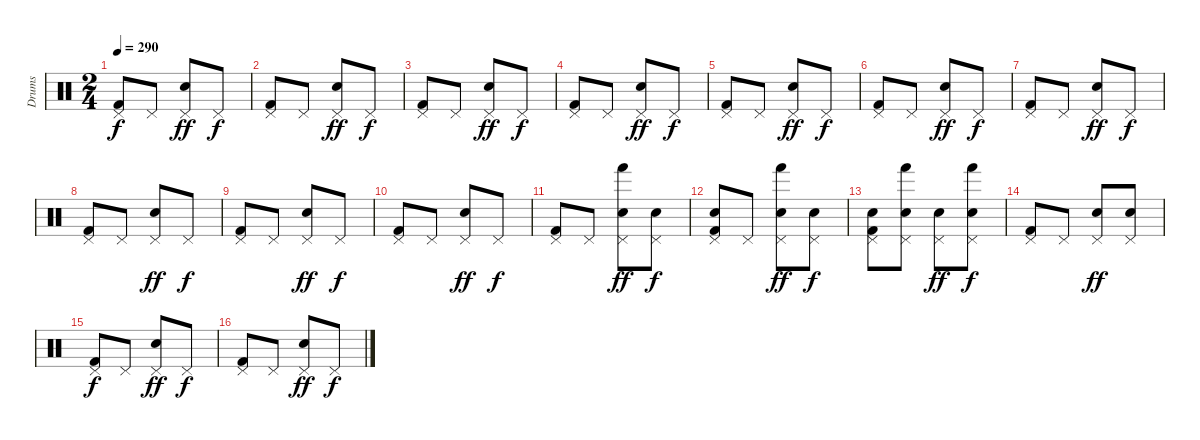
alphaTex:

\track ("Drums" "Drums") {instrument percussion}
\staff {score}
\articulation defaults
\ts (2 4)
\tempo 290
\clef neutral
\ks c
("Pedal Hi-Hat (hit)" "Kick (hit) 2").8{dy f} "Pedal Hi-Hat (hit)".8 ("Pedal Hi-Hat (hit)" "Electric Snare (hit)").8{dy ff} "Pedal Hi-Hat (hit)".8{dy f} |
("Pedal Hi-Hat (hit)" "Kick (hit) 2").8 "Pedal Hi-Hat (hit)".8 ("Pedal Hi-Hat (hit)" "Electric Snare (hit)").8{dy ff} "Pedal Hi-Hat (hit)".8{dy f} |
("Pedal Hi-Hat (hit)" "Kick (hit) 2").8 "Pedal Hi-Hat (hit)".8 ("Pedal Hi-Hat (hit)" "Electric Snare (hit)").8{dy ff} "Pedal Hi-Hat (hit)".8{dy f} |
("Pedal Hi-Hat (hit)" "Kick (hit) 2").8 "Pedal Hi-Hat (hit)".8 ("Pedal Hi-Hat (hit)" "Electric Snare (hit)").8{dy ff} "Pedal Hi-Hat (hit)".8{dy f} |
("Pedal Hi-Hat (hit)" "Kick (hit) 2").8 "Pedal Hi-Hat (hit)".8 ("Pedal Hi-Hat (hit)" "Electric Snare (hit)").8{dy ff} "Pedal Hi-Hat (hit)".8{dy f} |
("Pedal Hi-Hat (hit)" "Kick (hit) 2").8 "Pedal Hi-Hat (hit)".8 ("Pedal Hi-Hat (hit)" "Electric Snare (hit)").8{dy ff} "Pedal Hi-Hat (hit)".8{dy f} |
("Pedal Hi-Hat (hit)" "Kick (hit) 2").8 "Pedal Hi-Hat (hit)".8 ("Pedal Hi-Hat (hit)" "Electric Snare (hit)").8{dy ff} "Pedal Hi-Hat (hit)".8{dy f} |
("Pedal Hi-Hat (hit)" "Kick (hit) 2").8 "Pedal Hi-Hat (hit)".8 ("Pedal Hi-Hat (hit)" "Electric Snare (hit)").8{dy ff} "Pedal Hi-Hat (hit)".8{dy f} |
("Pedal Hi-Hat (hit)" "Kick (hit) 2").8 "Pedal Hi-Hat (hit)".8 ("Pedal Hi-Hat (hit)" "Electric Snare (hit)").8{dy ff} "Pedal Hi-Hat (hit)".8{dy f} |
("Pedal Hi-Hat (hit)" "Kick (hit) 2").8 "Pedal Hi-Hat (hit)".8 ("Pedal Hi-Hat (hit)" "Electric Snare (hit)").8{dy ff} "Pedal Hi-Hat (hit)".8{dy f} |
("Pedal Hi-Hat (hit)" "Kick (hit) 2").8 "Pedal Hi-Hat (hit)".8 ("Pedal Hi-Hat (hit)" "Hand (hit)" "Electric Snare (hit)").8{dy ff} ("Pedal Hi-Hat (hit)" "Electric Snare (hit)").8{dy f} |
("Pedal Hi-Hat (hit)" "Electric Snare (hit)" "Kick (hit) 2").8 "Pedal Hi-Hat (hit)".8 ("Pedal Hi-Hat (hit)" "Hand (hit)" "Electric Snare (hit)").8{dy ff} ("Pedal Hi-Hat (hit)" "Electric Snare (hit)").8{dy f} |
("Pedal Hi-Hat (hit)" "Electric Snare (hit)" "Kick (hit) 2").8 ("Pedal Hi-Hat (hit)" "Hand (hit)" "Electric Snare (hit)").8 ("Pedal Hi-Hat (hit)" "Electric Snare (hit)").8{dy ff} ("Pedal Hi-Hat (hit)" "Hand (hit)" "Electric Snare (hit)").8{dy f} |
("Pedal Hi-Hat (hit)" "Kick (hit) 2").8 "Pedal Hi-Hat (hit)".8 ("Pedal Hi-Hat (hit)" "Electric Snare (hit)").8{dy ff} ("Pedal Hi-Hat (hit)" "Electric Snare (hit)").8 |
("Pedal Hi-Hat (hit)" "Kick (hit) 2").8{dy f} "Pedal Hi-Hat (hit)".8 ("Pedal Hi-Hat (hit)" "Electric Snare (hit)").8{dy ff} "Pedal Hi-Hat (hit)".8{dy f} |
("Pedal Hi-Hat (hit)" "Kick (hit) 2").8 "Pedal Hi-Hat (hit)".8 ("Pedal Hi-Hat (hit)" "Electric Snare (hit)").8{dy ff} "Pedal Hi-Hat (hit)".8{dy f}
